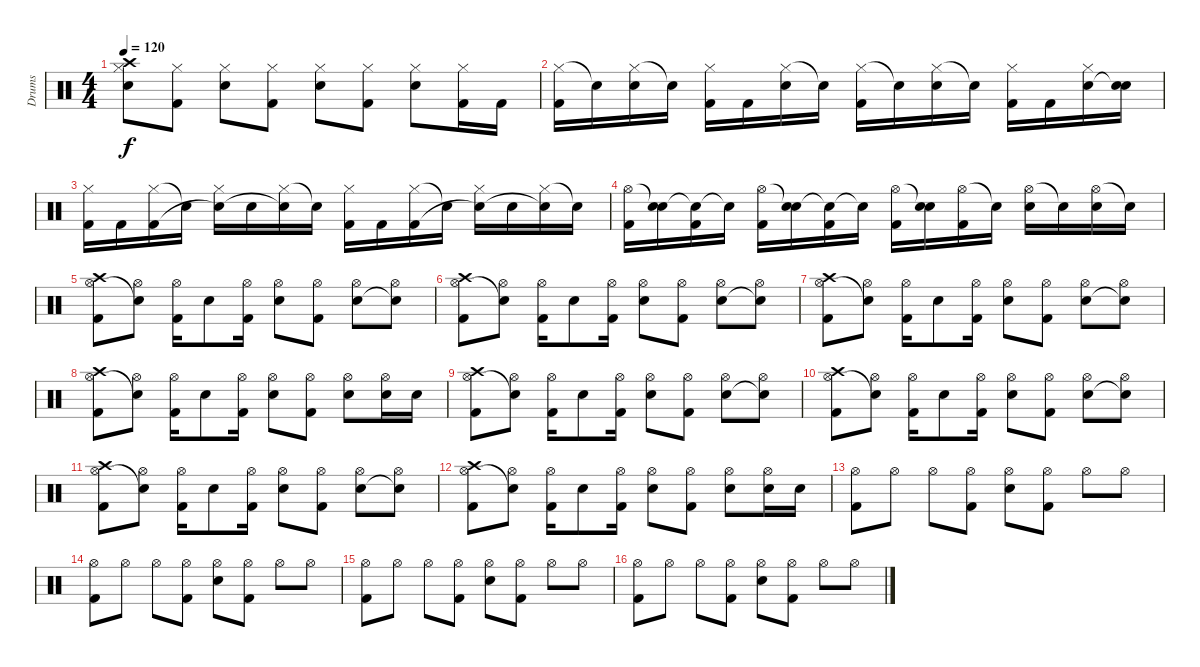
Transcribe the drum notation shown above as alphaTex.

\track ("Drums" "Drums") {instrument percussion}
\staff {score}
\articulation defaults
\ts (4 4)
\tempo 120
\clef neutral
\ks c
("Crash high (hit)" "Hi-Hat (closed)" "Electric Snare (hit)").8{dy f} ("Hi-Hat (closed)" "Kick (hit) 2").8 ("Hi-Hat (closed)" "Electric Snare (hit)").8 ("Hi-Hat (closed)" "Kick (hit) 2").8 ("Hi-Hat (closed)" "Electric Snare (hit)").8 ("Hi-Hat (closed)" "Kick (hit) 2").8 ("Hi-Hat (closed)" "Electric Snare (hit)").8 ("Hi-Hat (closed)" "Kick (hit) 2").16 "Kick (hit) 2".16 |
("Hi-Hat (closed)" "Kick (hit) 2").16 "Snare (hit)"{t}.16 ("Hi-Hat (closed)" "Electric Snare (hit)").16 "Snare (hit)"{t}.16 ("Hi-Hat (closed)" "Kick (hit) 2").16 "Kick (hit) 2".16 ("Hi-Hat (closed)" "Electric Snare (hit)").16 "Snare (hit)"{t}.16 ("Hi-Hat (closed)" "Kick (hit) 2").16 "Snare (hit)"{t}.16 ("Hi-Hat (closed)" "Electric Snare (hit)").16 "Snare (hit)"{t}.16 ("Hi-Hat (closed)" "Kick (hit) 2").16 "Kick (hit) 2".16 ("Hi-Hat (closed)" "Electric Snare (hit)").16 ("Electric Snare (hit)" "Snare (hit)"{t}).16 |
("Hi-Hat (closed)" "Kick (hit) 2").16 "Kick (hit) 2".16 ("Hi-Hat (closed)" "Kick (hit) 2").16 "Snare (hit)"{t}.16 ("Hi-Hat (closed)" "Snare (hit)"{t}).16 "Electric Snare (hit)".16 ("Hi-Hat (closed)" "Snare (hit)"{t}).16 "Snare (hit)"{t}.16 ("Hi-Hat (closed)" "Kick (hit) 2").16 "Kick (hit) 2".16 ("Hi-Hat (closed)" "Kick (hit) 2").16 "Snare (hit)"{t}.16 ("Hi-Hat (closed)" "Snare (hit)"{t}).16 "Electric Snare (hit)".16 ("Hi-Hat (closed)" "Snare (hit)"{t}).16 "Snare (hit)"{t}.16 |
("Hi-Hat (open)" "Kick (hit) 2").16 ("Snare (hit)"{t} "Electric Snare (hit)").16 ("Snare (hit)"{t} "Kick (hit) 2").16 "Snare (hit)"{t}.16 ("Hi-Hat (open)" "Kick (hit) 2").16 ("Snare (hit)"{t} "Electric Snare (hit)").16 ("Snare (hit)"{t} "Kick (hit) 2").16 "Snare (hit)"{t}.16 ("Hi-Hat (open)" "Kick (hit) 2").16 ("Snare (hit)"{t} "Electric Snare (hit)").16 ("Hi-Hat (open)" "Kick (hit) 2").16 "Snare (hit)"{t}.16 ("Hi-Hat (open)" "Electric Snare (hit)").16 "Snare (hit)"{t}.16 ("Hi-Hat (open)" "Electric Snare (hit)").16 "Snare (hit)"{t}.16 |
("Crash high (hit)" "Hi-Hat (open)" "Kick (hit) 2").8 ("Hi-Hat (open)" "Snare (hit)"{t}).8 ("Hi-Hat (open)" "Kick (hit) 2").16 "Electric Snare (hit)".8 ("Hi-Hat (open)" "Kick (hit) 2").16 ("Hi-Hat (open)" "Electric Snare (hit)").8 ("Hi-Hat (open)" "Kick (hit) 2").8 ("Hi-Hat (open)" "Snare (hit) 2").8 ("Hi-Hat (open)" "Snare (hit)"{t}).8 |
("Crash high (hit)" "Hi-Hat (open)" "Kick (hit) 2").8 ("Hi-Hat (open)" "Snare (hit)"{t}).8 ("Hi-Hat (open)" "Kick (hit) 2").16 "Electric Snare (hit)".8 ("Hi-Hat (open)" "Kick (hit) 2").16 ("Hi-Hat (open)" "Electric Snare (hit)").8 ("Hi-Hat (open)" "Kick (hit) 2").8 ("Hi-Hat (open)" "Snare (hit) 2").8 ("Hi-Hat (open)" "Snare (hit)"{t}).8 |
("Crash high (hit)" "Hi-Hat (open)" "Kick (hit) 2").8 ("Hi-Hat (open)" "Snare (hit)"{t}).8 ("Hi-Hat (open)" "Kick (hit) 2").16 "Electric Snare (hit)".8 ("Hi-Hat (open)" "Kick (hit) 2").16 ("Hi-Hat (open)" "Electric Snare (hit)").8 ("Hi-Hat (open)" "Kick (hit) 2").8 ("Hi-Hat (open)" "Snare (hit) 2").8 ("Hi-Hat (open)" "Snare (hit)"{t}).8 |
("Crash high (hit)" "Hi-Hat (open)" "Kick (hit) 2").8 ("Hi-Hat (open)" "Snare (hit)"{t}).8 ("Hi-Hat (open)" "Kick (hit) 2").16 "Electric Snare (hit)".8 ("Hi-Hat (open)" "Kick (hit) 2").16 ("Hi-Hat (open)" "Electric Snare (hit)").8 ("Hi-Hat (open)" "Kick (hit) 2").8 ("Hi-Hat (open)" "Electric Snare (hit)").8 ("Hi-Hat (open)" "Electric Snare (hit)").16 "Electric Snare (hit)".16 |
("Crash high (hit)" "Hi-Hat (open)" "Kick (hit) 2").8 ("Hi-Hat (open)" "Snare (hit)"{t}).8 ("Hi-Hat (open)" "Kick (hit) 2").16 "Electric Snare (hit)".8 ("Hi-Hat (open)" "Kick (hit) 2").16 ("Hi-Hat (open)" "Electric Snare (hit)").8 ("Hi-Hat (open)" "Kick (hit) 2").8 ("Hi-Hat (open)" "Snare (hit) 2").8 ("Hi-Hat (open)" "Snare (hit)"{t}).8 |
("Crash high (hit)" "Hi-Hat (open)" "Kick (hit) 2").8 ("Hi-Hat (open)" "Snare (hit)"{t}).8 ("Hi-Hat (open)" "Kick (hit) 2").16 "Electric Snare (hit)".8 ("Hi-Hat (open)" "Kick (hit) 2").16 ("Hi-Hat (open)" "Electric Snare (hit)").8 ("Hi-Hat (open)" "Kick (hit) 2").8 ("Hi-Hat (open)" "Snare (hit) 2").8 ("Hi-Hat (open)" "Snare (hit)"{t}).8 |
("Crash high (hit)" "Hi-Hat (open)" "Kick (hit) 2").8 ("Hi-Hat (open)" "Snare (hit)"{t}).8 ("Hi-Hat (open)" "Kick (hit) 2").16 "Electric Snare (hit)".8 ("Hi-Hat (open)" "Kick (hit) 2").16 ("Hi-Hat (open)" "Electric Snare (hit)").8 ("Hi-Hat (open)" "Kick (hit) 2").8 ("Hi-Hat (open)" "Snare (hit) 2").8 ("Hi-Hat (open)" "Snare (hit)"{t}).8 |
("Crash high (hit)" "Hi-Hat (open)" "Kick (hit) 2").8 ("Hi-Hat (open)" "Snare (hit)"{t}).8 ("Hi-Hat (open)" "Kick (hit) 2").16 "Electric Snare (hit)".8 ("Hi-Hat (open)" "Kick (hit) 2").16 ("Hi-Hat (open)" "Electric Snare (hit)").8 ("Hi-Hat (open)" "Kick (hit) 2").8 ("Hi-Hat (open)" "Electric Snare (hit)").8 ("Hi-Hat (open)" "Electric Snare (hit)").16 "Electric Snare (hit)".16 |
("Hi-Hat (open)" "Kick (hit) 2").8 "Hi-Hat (open)".8 "Hi-Hat (open)".8 ("Hi-Hat (open)" "Kick (hit) 2").8 ("Hi-Hat (open)" "Electric Snare (hit)").8 ("Hi-Hat (open)" "Kick (hit) 2").8 "Hi-Hat (open)".8 "Hi-Hat (open)".8 |
("Hi-Hat (open)" "Kick (hit) 2").8 "Hi-Hat (open)".8 "Hi-Hat (open)".8 ("Hi-Hat (open)" "Kick (hit) 2").8 ("Hi-Hat (open)" "Electric Snare (hit)").8 ("Hi-Hat (open)" "Kick (hit) 2").8 "Hi-Hat (open)".8 "Hi-Hat (open)".8 |
("Hi-Hat (open)" "Kick (hit) 2").8 "Hi-Hat (open)".8 "Hi-Hat (open)".8 ("Hi-Hat (open)" "Kick (hit) 2").8 ("Hi-Hat (open)" "Electric Snare (hit)").8 ("Hi-Hat (open)" "Kick (hit) 2").8 "Hi-Hat (open)".8 "Hi-Hat (open)".8 |
("Hi-Hat (open)" "Kick (hit) 2").8 "Hi-Hat (open)".8 "Hi-Hat (open)".8 ("Hi-Hat (open)" "Kick (hit) 2").8 ("Hi-Hat (open)" "Electric Snare (hit)").8 ("Hi-Hat (open)" "Kick (hit) 2").8 "Hi-Hat (open)".8 "Hi-Hat (open)".8
